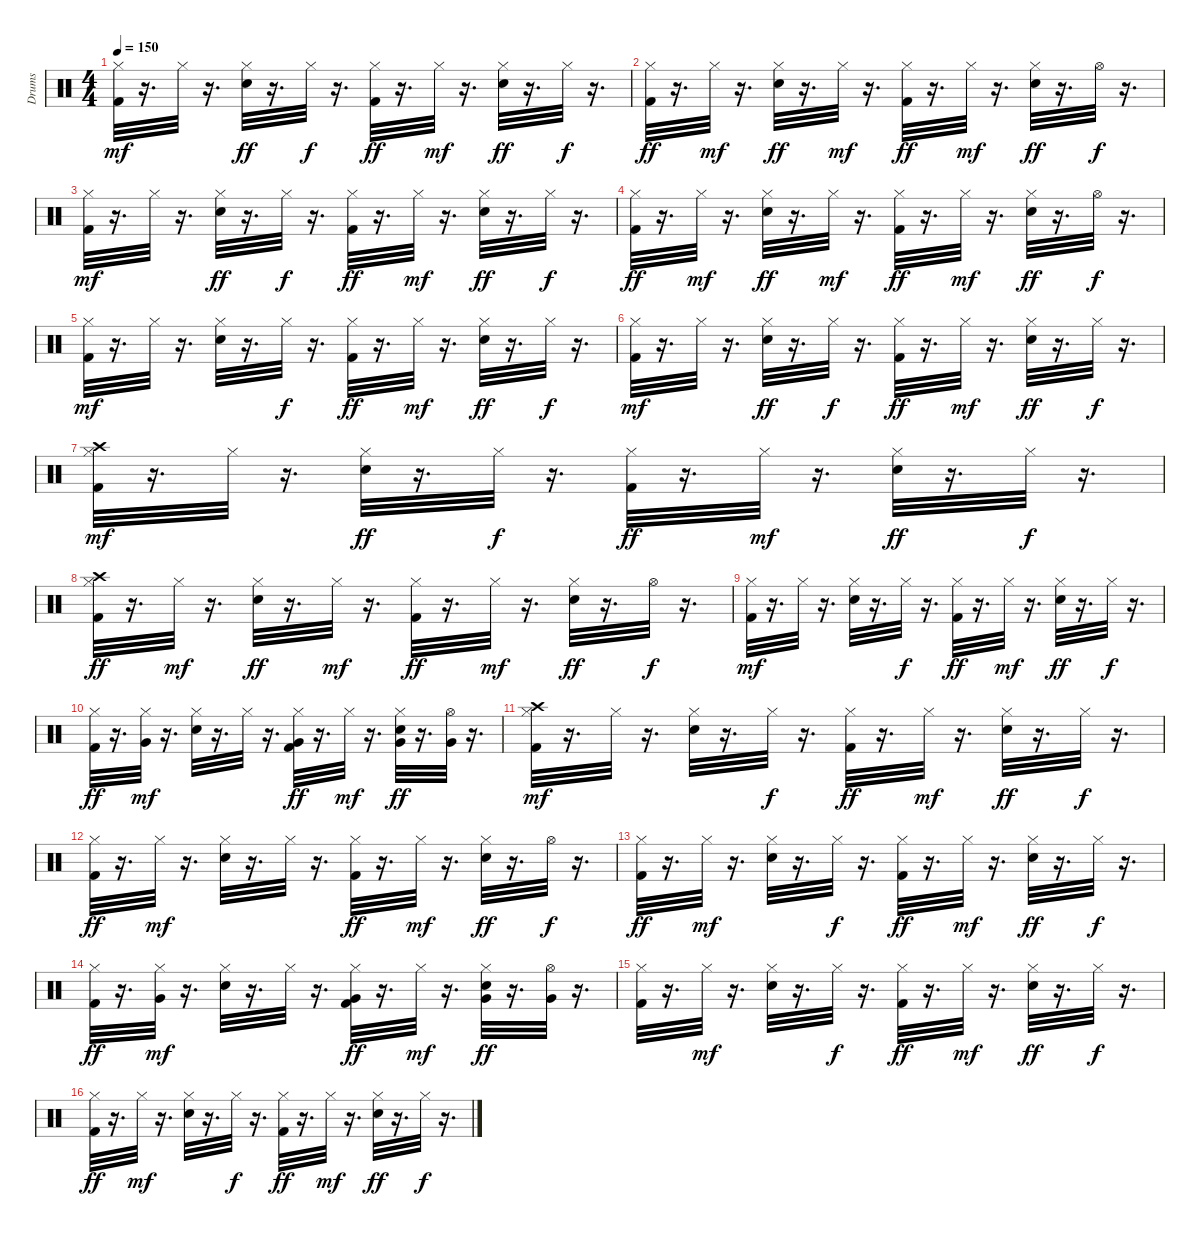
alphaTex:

\track ("Drums" "Drums") {instrument percussion}
\staff {score}
\articulation defaults
\ts (4 4)
\tempo 150
\clef neutral
\ks c
("Kick (hit) 2" "Hi-Hat (closed)").32{dy mf} r.16{d} "Hi-Hat (closed)".32 r.16{d} ("Hi-Hat (closed)" "Snare (hit) 2").32{dy ff} r.16{d} "Hi-Hat (closed)".32{dy f} r.16{d} ("Kick (hit) 2" "Hi-Hat (closed)").32{dy ff} r.16{d} "Hi-Hat (closed)".32{dy mf} r.16{d} ("Snare (hit) 2" "Hi-Hat (closed)").32{dy ff} r.16{d} "Hi-Hat (closed)".32{dy f} r.16{d} |
("Kick (hit) 2" "Hi-Hat (closed)").32{dy ff} r.16{d} "Hi-Hat (closed)".32{dy mf} r.16{d} ("Hi-Hat (closed)" "Snare (hit) 2").32{dy ff} r.16{d} "Hi-Hat (closed)".32{dy mf} r.16{d} ("Kick (hit) 2" "Hi-Hat (closed)").32{dy ff} r.16{d} "Hi-Hat (closed)".32{dy mf} r.16{d} ("Snare (hit) 2" "Hi-Hat (closed)").32{dy ff} r.16{d} "Hi-Hat (open)".32{dy f} r.16{d} |
("Kick (hit) 2" "Hi-Hat (closed)").32{dy mf} r.16{d} "Hi-Hat (closed)".32 r.16{d} ("Hi-Hat (closed)" "Snare (hit) 2").32{dy ff} r.16{d} "Hi-Hat (closed)".32{dy f} r.16{d} ("Kick (hit) 2" "Hi-Hat (closed)").32{dy ff} r.16{d} "Hi-Hat (closed)".32{dy mf} r.16{d} ("Snare (hit) 2" "Hi-Hat (closed)").32{dy ff} r.16{d} "Hi-Hat (closed)".32{dy f} r.16{d} |
("Kick (hit) 2" "Hi-Hat (closed)").32{dy ff} r.16{d} "Hi-Hat (closed)".32{dy mf} r.16{d} ("Hi-Hat (closed)" "Snare (hit) 2").32{dy ff} r.16{d} "Hi-Hat (closed)".32{dy mf} r.16{d} ("Kick (hit) 2" "Hi-Hat (closed)").32{dy ff} r.16{d} "Hi-Hat (closed)".32{dy mf} r.16{d} ("Hi-Hat (closed)" "Snare (hit) 2").32{dy ff} r.16{d} "Hi-Hat (open)".32{dy f} r.16{d} |
("Kick (hit) 2" "Hi-Hat (closed)").32{dy mf} r.16{d} "Hi-Hat (closed)".32 r.16{d} ("Snare (hit) 2" "Hi-Hat (closed)").32 r.16{d} "Hi-Hat (closed)".32{dy f} r.16{d} ("Kick (hit) 2" "Hi-Hat (closed)").32{dy ff} r.16{d} "Hi-Hat (closed)".32{dy mf} r.16{d} ("Hi-Hat (closed)" "Snare (hit) 2").32{dy ff} r.16{d} "Hi-Hat (closed)".32{dy f} r.16{d} |
("Kick (hit) 2" "Hi-Hat (closed)").32{dy mf} r.16{d} "Hi-Hat (closed)".32 r.16{d} ("Hi-Hat (closed)" "Snare (hit) 2").32{dy ff} r.16{d} "Hi-Hat (closed)".32{dy f} r.16{d} ("Kick (hit) 2" "Hi-Hat (closed)").32{dy ff} r.16{d} "Hi-Hat (closed)".32{dy mf} r.16{d} ("Hi-Hat (closed)" "Snare (hit) 2").32{dy ff} r.16{d} "Hi-Hat (closed)".32{dy f} r.16{d} |
("Kick (hit) 2" "Hi-Hat (closed)" "Crash high (hit)").32{dy mf} r.16{d} "Hi-Hat (closed)".32 r.16{d} ("Hi-Hat (closed)" "Snare (hit) 2").32{dy ff} r.16{d} "Hi-Hat (closed)".32{dy f} r.16{d} ("Kick (hit) 2" "Hi-Hat (closed)").32{dy ff} r.16{d} "Hi-Hat (closed)".32{dy mf} r.16{d} ("Snare (hit) 2" "Hi-Hat (closed)").32{dy ff} r.16{d} "Hi-Hat (closed)".32{dy f} r.16{d} |
("Kick (hit) 2" "Hi-Hat (closed)" "Crash high (hit)").32{dy ff} r.16{d} "Hi-Hat (closed)".32{dy mf} r.16{d} ("Hi-Hat (closed)" "Snare (hit) 2").32{dy ff} r.16{d} "Hi-Hat (closed)".32{dy mf} r.16{d} ("Kick (hit) 2" "Hi-Hat (closed)").32{dy ff} r.16{d} "Hi-Hat (closed)".32{dy mf} r.16{d} ("Hi-Hat (closed)" "Snare (hit) 2").32{dy ff} r.16{d} "Hi-Hat (open)".32{dy f} r.16{d} |
("Kick (hit) 2" "Hi-Hat (closed)").32{dy mf} r.16{d} "Hi-Hat (closed)".32 r.16{d} ("Snare (hit) 2" "Hi-Hat (closed)").32 r.16{d} "Hi-Hat (closed)".32{dy f} r.16{d} ("Hi-Hat (closed)" "Kick (hit) 2").32{dy ff} r.16{d} "Hi-Hat (closed)".32{dy mf} r.16{d} ("Hi-Hat (closed)" "Snare (hit) 2").32{dy ff} r.16{d} "Hi-Hat (closed)".32{dy f} r.16{d} |
("Kick (hit) 2" "Hi-Hat (closed)").32{dy ff} r.16{d} ("Hi-Hat (closed)" "Very Low Tom (hit)").32{dy mf} r.16{d} ("Snare (hit) 2" "Hi-Hat (closed)").32 r.16{d} "Hi-Hat (closed)".32 r.16{d} ("Hi-Hat (closed)" "Kick (hit) 2" "Very Low Tom (hit)").32{dy ff} r.16{d} "Hi-Hat (closed)".32{dy mf} r.16{d} ("Snare (hit) 2" "Hi-Hat (closed)" "Very Low Tom (hit)").32{dy ff} r.16{d} ("Very Low Tom (hit)" "Hi-Hat (open)").32 r.16{d} |
("Kick (hit) 2" "Hi-Hat (closed)" "Crash high (hit)").32{dy mf} r.16{d} "Hi-Hat (closed)".32 r.16{d} ("Snare (hit) 2" "Hi-Hat (closed)").32 r.16{d} "Hi-Hat (closed)".32{dy f} r.16{d} ("Kick (hit) 2" "Hi-Hat (closed)").32{dy ff} r.16{d} "Hi-Hat (closed)".32{dy mf} r.16{d} ("Snare (hit) 2" "Hi-Hat (closed)").32{dy ff} r.16{d} "Hi-Hat (closed)".32{dy f} r.16{d} |
("Kick (hit) 2" "Hi-Hat (closed)").32{dy ff} r.16{d} "Hi-Hat (closed)".32{dy mf} r.16{d} ("Snare (hit) 2" "Hi-Hat (closed)").32 r.16{d} "Hi-Hat (closed)".32 r.16{d} ("Hi-Hat (closed)" "Kick (hit) 2").32{dy ff} r.16{d} "Hi-Hat (closed)".32{dy mf} r.16{d} ("Snare (hit) 2" "Hi-Hat (closed)").32{dy ff} r.16{d} "Hi-Hat (open)".32{dy f} r.16{d} |
("Hi-Hat (closed)" "Kick (hit) 2").32{dy ff} r.16{d} "Hi-Hat (closed)".32{dy mf} r.16{d} ("Snare (hit) 2" "Hi-Hat (closed)").32 r.16{d} "Hi-Hat (closed)".32{dy f} r.16{d} ("Hi-Hat (closed)" "Kick (hit) 2").32{dy ff} r.16{d} "Hi-Hat (closed)".32{dy mf} r.16{d} ("Hi-Hat (closed)" "Snare (hit) 2").32{dy ff} r.16{d} "Hi-Hat (closed)".32{dy f} r.16{d} |
("Hi-Hat (closed)" "Kick (hit) 2").32{dy ff} r.16{d} ("Hi-Hat (closed)" "Very Low Tom (hit)").32{dy mf} r.16{d} ("Snare (hit) 2" "Hi-Hat (closed)").32 r.16{d} "Hi-Hat (closed)".32 r.16{d} ("Kick (hit) 2" "Hi-Hat (closed)" "Very Low Tom (hit)").32{dy ff} r.16{d} "Hi-Hat (closed)".32{dy mf} r.16{d} ("Snare (hit) 2" "Hi-Hat (closed)" "Very Low Tom (hit)").32{dy ff} r.16{d} ("Very Low Tom (hit)" "Hi-Hat (open)").32 r.16{d} |
("Hi-Hat (closed)" "Kick (hit) 2").32 r.16{d} "Hi-Hat (closed)".32{dy mf} r.16{d} ("Snare (hit) 2" "Hi-Hat (closed)").32 r.16{d} "Hi-Hat (closed)".32{dy f} r.16{d} ("Hi-Hat (closed)" "Kick (hit) 2").32{dy ff} r.16{d} "Hi-Hat (closed)".32{dy mf} r.16{d} ("Hi-Hat (closed)" "Snare (hit) 2").32{dy ff} r.16{d} "Hi-Hat (closed)".32{dy f} r.16{d} |
("Hi-Hat (closed)" "Kick (hit) 2").32{dy ff} r.16{d} "Hi-Hat (closed)".32{dy mf} r.16{d} ("Snare (hit) 2" "Hi-Hat (closed)").32 r.16{d} "Hi-Hat (closed)".32{dy f} r.16{d} ("Hi-Hat (closed)" "Kick (hit) 2").32{dy ff} r.16{d} "Hi-Hat (closed)".32{dy mf} r.16{d} ("Snare (hit) 2" "Hi-Hat (closed)").32{dy ff} r.16{d} "Hi-Hat (closed)".32{dy f} r.16{d}
